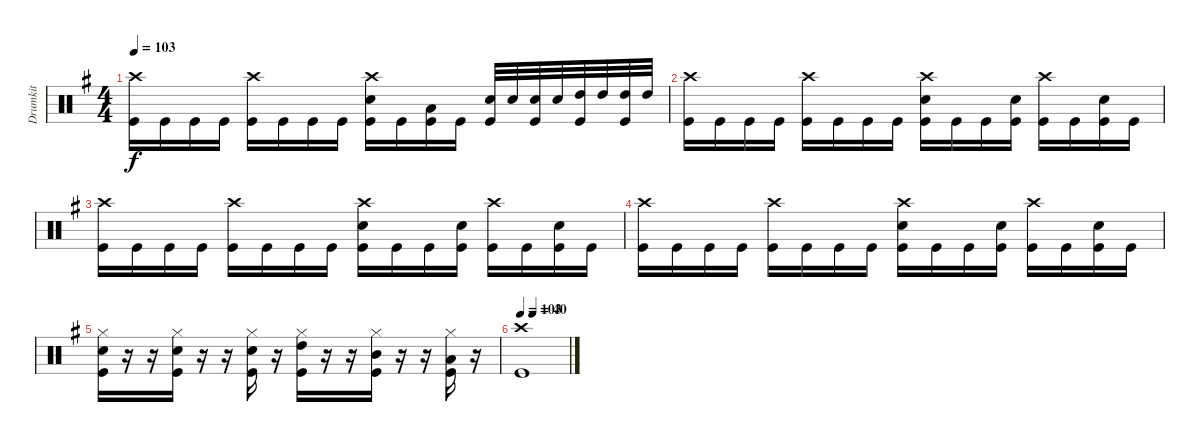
\track ("Drumkit" "Drumkit") {instrument percussion}
\staff {score}
\articulation defaults
\ts (4 4)
\tempo 103
\clef neutral
\ks eminor
("Crash high (hit)" "Kick (hit)").16{dy f} "Kick (hit)".16 "Kick (hit)".16 "Kick (hit)".16 ("Crash high (hit)" "Kick (hit)").16 "Kick (hit)".16 "Kick (hit)".16 "Kick (hit)".16 ("Crash high (hit)" "Snare (hit) 2" "Kick (hit)").16 "Kick (hit)".16 ("Low Tom (hit)" "Kick (hit)").16 "Kick (hit)".16 ("Snare (hit) 2" "Kick (hit)").32 "Snare (hit) 2".32 ("Snare (hit) 2" "Kick (hit)").32 "Snare (hit) 2".32 ("High Tom (hit)" "Kick (hit)").32 "High Tom (hit)".32 ("High Tom (hit)" "Kick (hit)").32 "High Tom (hit)".32 |
("Crash high (hit)" "Kick (hit)").16 "Kick (hit)".16 "Kick (hit)".16 "Kick (hit)".16 ("Crash high (hit)" "Kick (hit)").16 "Kick (hit)".16 "Kick (hit)".16 "Kick (hit)".16 ("Crash high (hit)" "Snare (hit) 2" "Kick (hit)").16 "Kick (hit)".16 "Kick (hit)".16 ("Snare (hit) 2" "Kick (hit)").16 ("Crash high (hit)" "Kick (hit)").16 "Kick (hit)".16 ("Snare (hit) 2" "Kick (hit)").16 "Kick (hit)".16 |
("Crash high (hit)" "Kick (hit)").16 "Kick (hit)".16 "Kick (hit)".16 "Kick (hit)".16 ("Crash high (hit)" "Kick (hit)").16 "Kick (hit)".16 "Kick (hit)".16 "Kick (hit)".16 ("Crash high (hit)" "Snare (hit) 2" "Kick (hit)").16 "Kick (hit)".16 "Kick (hit)".16 ("Snare (hit) 2" "Kick (hit)").16 ("Crash high (hit)" "Kick (hit)").16 "Kick (hit)".16 ("Snare (hit) 2" "Kick (hit)").16 "Kick (hit)".16 |
("Crash high (hit)" "Kick (hit)").16 "Kick (hit)".16 "Kick (hit)".16 "Kick (hit)".16 ("Crash high (hit)" "Kick (hit)").16 "Kick (hit)".16 "Kick (hit)".16 "Kick (hit)".16 ("Crash high (hit)" "Snare (hit) 2" "Kick (hit)").16 "Kick (hit)".16 "Kick (hit)".16 ("Snare (hit) 2" "Kick (hit)").16 ("Crash high (hit)" "Kick (hit)").16 "Kick (hit)".16 ("Snare (hit) 2" "Kick (hit)").16 "Kick (hit)".16 |
("Hi-Hat (closed)" "Snare (hit) 2" "Kick (hit)").16 r.16 r.16 ("Hi-Hat (closed)" "Snare (hit) 2" "Kick (hit)").16 r.16 r.16 ("Hi-Hat (closed)" "Snare (hit) 2" "Kick (hit)").16 r.16 ("Hi-Hat (closed)" "High Tom (hit)" "Kick (hit)").16 r.16 r.16 ("Hi-Hat (closed)" "Mid Tom (hit)" "Kick (hit)").16 r.16 r.16 ("Hi-Hat (closed)" "Low Tom (hit)" "Kick (hit)").16 r.16 |
\tempo 103
\tempo (40 0.25)
("Crash high (hit)" "Kick (hit)").1
